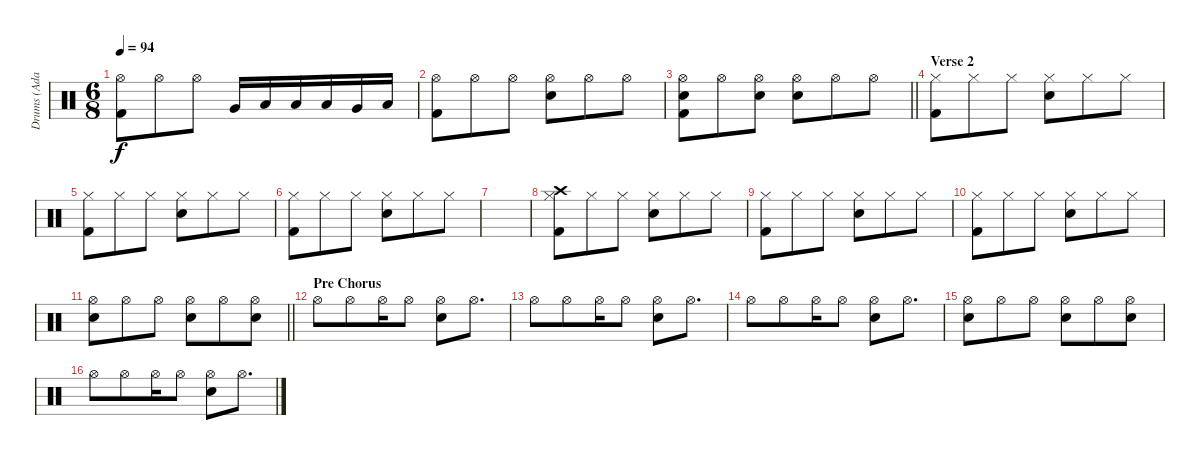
\track ("Drums (Adam)" "Drums (Ada") {instrument percussion}
\staff {score}
\articulation defaults
\ts (6 8)
\tempo 94
\clef neutral
\ks c
("Hi-Hat (open)" "Kick (hit) 2").8{dy f} "Hi-Hat (open)".8 "Hi-Hat (open)".8 "Very Low Tom (hit)".16 "Low Floor Tom (hit)".16 "Low Tom (hit)".16 "Low Floor Tom (hit)".16 "Very Low Tom (hit)".16 "Low Floor Tom (hit)".16 |
("Hi-Hat (open)" "Kick (hit) 2").8 "Hi-Hat (open)".8 "Hi-Hat (open)".8 ("Hi-Hat (open)" "Snare (hit) 2").8 "Hi-Hat (open)".8 "Hi-Hat (open)".8 |
\barLineRight lightlight
("Hi-Hat (open)" "Kick (hit) 2" "Snare (hit) 2").8 "Hi-Hat (open)".8 ("Hi-Hat (open)" "Snare (hit) 2").8 ("Hi-Hat (open)" "Snare (hit) 2").8 "Hi-Hat (open)".8 "Hi-Hat (open)".8 |
\section ("" "Verse 2")
("Hi-Hat (closed)" "Kick (hit) 2").8 "Hi-Hat (closed)".8 "Hi-Hat (closed)".8 ("Hi-Hat (closed)" "Snare (hit) 2").8 "Hi-Hat (closed)".8 "Hi-Hat (closed)".8 |
("Hi-Hat (closed)" "Kick (hit) 2").8 "Hi-Hat (closed)".8 "Hi-Hat (closed)".8 ("Hi-Hat (closed)" "Snare (hit) 2").8 "Hi-Hat (closed)".8 "Hi-Hat (closed)".8 |
("Hi-Hat (closed)" "Kick (hit) 2").8 "Hi-Hat (closed)".8 "Hi-Hat (closed)".8 ("Hi-Hat (closed)" "Snare (hit) 2").8 "Hi-Hat (closed)".8 "Hi-Hat (closed)".8 |
|
("Crash high (hit)" "Hi-Hat (closed)" "Kick (hit) 2").8 "Hi-Hat (closed)".8 "Hi-Hat (closed)".8 ("Hi-Hat (closed)" "Snare (hit) 2").8 "Hi-Hat (closed)".8 "Hi-Hat (closed)".8 |
("Hi-Hat (closed)" "Kick (hit) 2").8 "Hi-Hat (closed)".8 "Hi-Hat (closed)".8 ("Hi-Hat (closed)" "Snare (hit) 2").8 "Hi-Hat (closed)".8 "Hi-Hat (closed)".8 |
("Hi-Hat (closed)" "Kick (hit) 2").8 "Hi-Hat (closed)".8 "Hi-Hat (closed)".8 ("Hi-Hat (closed)" "Snare (hit) 2").8 "Hi-Hat (closed)".8 "Hi-Hat (closed)".8 |
\barLineRight lightlight
("Hi-Hat (open)" "Snare (hit) 2").8 "Hi-Hat (open)".8 "Hi-Hat (open)".8 ("Hi-Hat (open)" "Snare (hit) 2").8 "Hi-Hat (open)".8 ("Hi-Hat (open)" "Snare (hit) 2").8 |
\section ("" "Pre Chorus")
"Hi-Hat (open)".8 "Hi-Hat (open)".8 "Hi-Hat (open)".16 "Hi-Hat (open)".8 ("Hi-Hat (open)" "Snare (hit) 2").8 "Hi-Hat (open)".8{d} |
"Hi-Hat (open)".8 "Hi-Hat (open)".8 "Hi-Hat (open)".16 "Hi-Hat (open)".8 ("Hi-Hat (open)" "Snare (hit) 2").8 "Hi-Hat (open)".8{d} |
"Hi-Hat (open)".8 "Hi-Hat (open)".8 "Hi-Hat (open)".16 "Hi-Hat (open)".8 ("Hi-Hat (open)" "Snare (hit) 2").8 "Hi-Hat (open)".8{d} |
("Hi-Hat (open)" "Snare (hit) 2").8 "Hi-Hat (open)".8 "Hi-Hat (open)".8 ("Hi-Hat (open)" "Snare (hit) 2").8 "Hi-Hat (open)".8 ("Hi-Hat (open)" "Snare (hit) 2").8 |
"Hi-Hat (open)".8 "Hi-Hat (open)".8 "Hi-Hat (open)".16 "Hi-Hat (open)".8 ("Hi-Hat (open)" "Snare (hit) 2").8 "Hi-Hat (open)".8{d}
